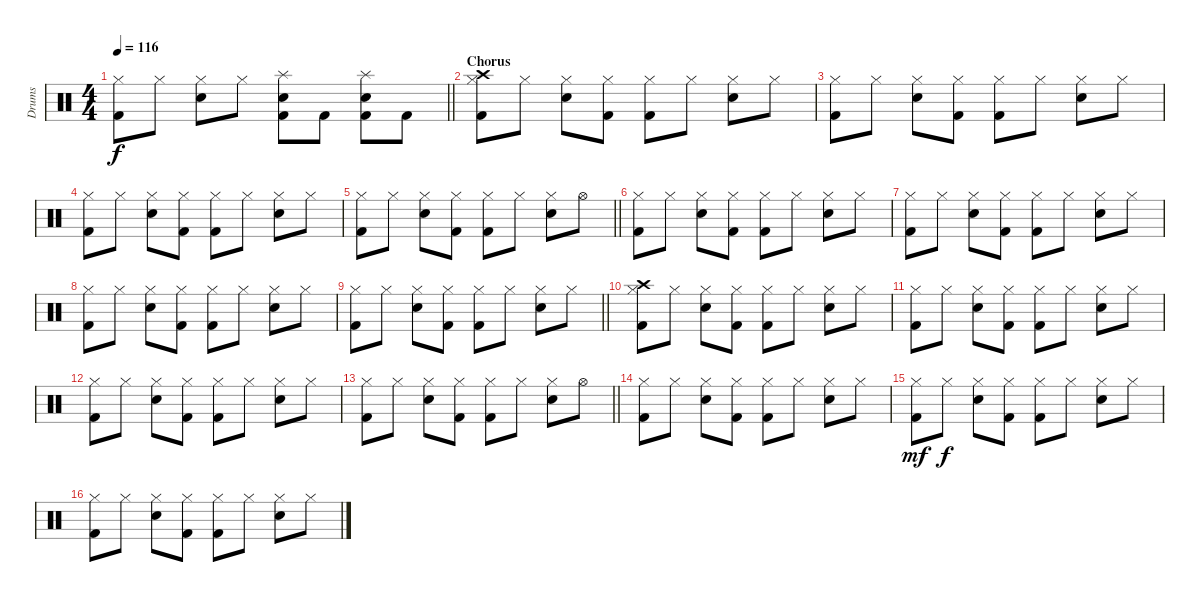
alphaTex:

\track ("Drums" "Drums") {instrument percussion}
\staff {score}
\articulation defaults
\ts (4 4)
\tempo 116
\clef neutral
\barLineRight lightlight
\ks c
("Kick (hit) 2" "Hi-Hat (closed)").8{dy f} "Hi-Hat (closed)".8 ("Electric Snare (hit)" "Hi-Hat (closed)").8 "Hi-Hat (closed)".8 ("Electric Snare (hit)" "Kick (hit) 2" "Splash (hit)").8 "Kick (hit) 2".8 ("Electric Snare (hit)" "Kick (hit) 2" "Splash (hit)").8 "Kick (hit) 2".8 |
\section ("" "Chorus")
("Crash high (hit)" "Kick (hit) 2" "Hi-Hat (closed)").8 "Hi-Hat (closed)".8 ("Electric Snare (hit)" "Hi-Hat (closed)").8 ("Kick (hit) 2" "Hi-Hat (closed)").8 ("Kick (hit) 2" "Hi-Hat (closed)").8 "Hi-Hat (closed)".8 ("Electric Snare (hit)" "Hi-Hat (closed)").8 "Hi-Hat (closed)".8 |
("Kick (hit) 2" "Hi-Hat (closed)").8 "Hi-Hat (closed)".8 ("Electric Snare (hit)" "Hi-Hat (closed)").8 ("Kick (hit) 2" "Hi-Hat (closed)").8 ("Kick (hit) 2" "Hi-Hat (closed)").8 "Hi-Hat (closed)".8 ("Electric Snare (hit)" "Hi-Hat (closed)").8 "Hi-Hat (closed)".8 |
("Kick (hit) 2" "Hi-Hat (closed)").8 "Hi-Hat (closed)".8 ("Electric Snare (hit)" "Hi-Hat (closed)").8 ("Kick (hit) 2" "Hi-Hat (closed)").8 ("Kick (hit) 2" "Hi-Hat (closed)").8 "Hi-Hat (closed)".8 ("Electric Snare (hit)" "Hi-Hat (closed)").8 "Hi-Hat (closed)".8 |
\barLineRight lightlight
("Kick (hit) 2" "Hi-Hat (closed)").8 "Hi-Hat (closed)".8 ("Electric Snare (hit)" "Hi-Hat (closed)").8 ("Kick (hit) 2" "Hi-Hat (closed)").8 ("Kick (hit) 2" "Hi-Hat (closed)").8 "Hi-Hat (closed)".8 ("Electric Snare (hit)" "Hi-Hat (closed)").8 "Hi-Hat (open)".8 |
("Kick (hit) 2" "Hi-Hat (closed)").8 "Hi-Hat (closed)".8 ("Electric Snare (hit)" "Hi-Hat (closed)").8 ("Kick (hit) 2" "Hi-Hat (closed)").8 ("Kick (hit) 2" "Hi-Hat (closed)").8 "Hi-Hat (closed)".8 ("Electric Snare (hit)" "Hi-Hat (closed)").8 "Hi-Hat (closed)".8 |
("Kick (hit) 2" "Hi-Hat (closed)").8 "Hi-Hat (closed)".8 ("Electric Snare (hit)" "Hi-Hat (closed)").8 ("Kick (hit) 2" "Hi-Hat (closed)").8 ("Kick (hit) 2" "Hi-Hat (closed)").8 "Hi-Hat (closed)".8 ("Electric Snare (hit)" "Hi-Hat (closed)").8 "Hi-Hat (closed)".8 |
("Kick (hit) 2" "Hi-Hat (closed)").8 "Hi-Hat (closed)".8 ("Electric Snare (hit)" "Hi-Hat (closed)").8 ("Kick (hit) 2" "Hi-Hat (closed)").8 ("Kick (hit) 2" "Hi-Hat (closed)").8 "Hi-Hat (closed)".8 ("Electric Snare (hit)" "Hi-Hat (closed)").8 "Hi-Hat (closed)".8 |
\barLineRight lightlight
("Kick (hit) 2" "Hi-Hat (closed)").8 "Hi-Hat (closed)".8 ("Electric Snare (hit)" "Hi-Hat (closed)").8 ("Kick (hit) 2" "Hi-Hat (closed)").8 ("Kick (hit) 2" "Hi-Hat (closed)").8 "Hi-Hat (closed)".8 ("Electric Snare (hit)" "Hi-Hat (closed)").8 "Hi-Hat (closed)".8 |
("Crash high (hit)" "Kick (hit) 2" "Hi-Hat (closed)").8 "Hi-Hat (closed)".8 ("Electric Snare (hit)" "Hi-Hat (closed)").8 ("Kick (hit) 2" "Hi-Hat (closed)").8 ("Kick (hit) 2" "Hi-Hat (closed)").8 "Hi-Hat (closed)".8 ("Electric Snare (hit)" "Hi-Hat (closed)").8 "Hi-Hat (closed)".8 |
("Kick (hit) 2" "Hi-Hat (closed)").8 "Hi-Hat (closed)".8 ("Electric Snare (hit)" "Hi-Hat (closed)").8 ("Kick (hit) 2" "Hi-Hat (closed)").8 ("Kick (hit) 2" "Hi-Hat (closed)").8 "Hi-Hat (closed)".8 ("Electric Snare (hit)" "Hi-Hat (closed)").8 "Hi-Hat (closed)".8 |
("Kick (hit) 2" "Hi-Hat (closed)").8 "Hi-Hat (closed)".8 ("Electric Snare (hit)" "Hi-Hat (closed)").8 ("Kick (hit) 2" "Hi-Hat (closed)").8 ("Kick (hit) 2" "Hi-Hat (closed)").8 "Hi-Hat (closed)".8 ("Electric Snare (hit)" "Hi-Hat (closed)").8 "Hi-Hat (closed)".8 |
\barLineRight lightlight
("Kick (hit) 2" "Hi-Hat (closed)").8 "Hi-Hat (closed)".8 ("Electric Snare (hit)" "Hi-Hat (closed)").8 ("Kick (hit) 2" "Hi-Hat (closed)").8 ("Kick (hit) 2" "Hi-Hat (closed)").8 "Hi-Hat (closed)".8 ("Electric Snare (hit)" "Hi-Hat (closed)").8 "Hi-Hat (open)".8 |
("Kick (hit) 2" "Hi-Hat (closed)").8 "Hi-Hat (closed)".8 ("Electric Snare (hit)" "Hi-Hat (closed)").8 ("Kick (hit) 2" "Hi-Hat (closed)").8 ("Kick (hit) 2" "Hi-Hat (closed)").8 "Hi-Hat (closed)".8 ("Electric Snare (hit)" "Hi-Hat (closed)").8 "Hi-Hat (closed)".8 |
("Kick (hit) 2" "Hi-Hat (closed)").8{dy mf} "Hi-Hat (closed)".8{dy f} ("Electric Snare (hit)" "Hi-Hat (closed)").8 ("Kick (hit) 2" "Hi-Hat (closed)").8 ("Kick (hit) 2" "Hi-Hat (closed)").8 "Hi-Hat (closed)".8 ("Electric Snare (hit)" "Hi-Hat (closed)").8 "Hi-Hat (closed)".8 |
("Kick (hit) 2" "Hi-Hat (closed)").8 "Hi-Hat (closed)".8 ("Electric Snare (hit)" "Hi-Hat (closed)").8 ("Kick (hit) 2" "Hi-Hat (closed)").8 ("Kick (hit) 2" "Hi-Hat (closed)").8 "Hi-Hat (closed)".8 ("Electric Snare (hit)" "Hi-Hat (closed)").8 "Hi-Hat (closed)".8
